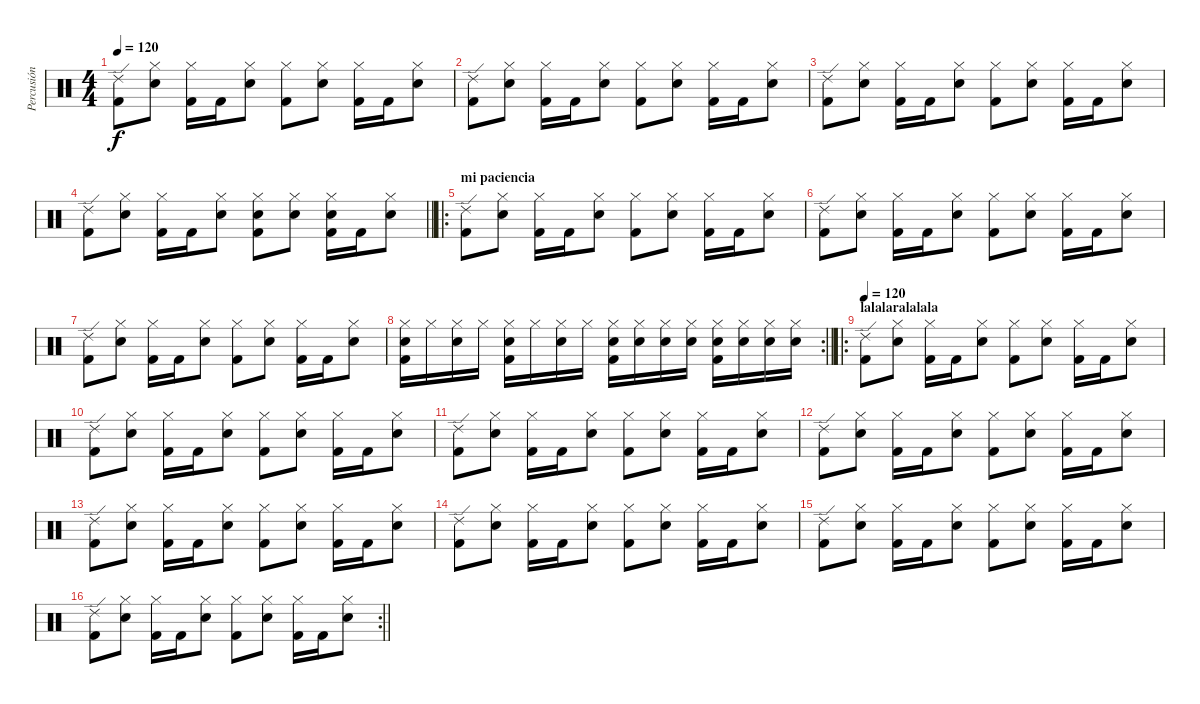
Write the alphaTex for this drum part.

\track ("Percusión" "Percusión") {instrument percussion}
\staff {score}
\articulation defaults
\ts (4 4)
\tempo 120
\clef neutral
\ks c
("Ride (edge) 2" "Kick (hit) 2").8{dy f} ("Hi-Hat (closed)" "Electric Snare (hit)").8 ("Hi-Hat (closed)" "Kick (hit) 2").16 "Kick (hit) 2".16 ("Hi-Hat (closed)" "Electric Snare (hit)").8 ("Hi-Hat (closed)" "Kick (hit) 2").8 ("Hi-Hat (closed)" "Electric Snare (hit)").8 ("Hi-Hat (closed)" "Kick (hit) 2").16 "Kick (hit) 2".16 ("Hi-Hat (closed)" "Electric Snare (hit)").8 |
("Ride (edge) 2" "Kick (hit) 2").8 ("Hi-Hat (closed)" "Electric Snare (hit)").8 ("Hi-Hat (closed)" "Kick (hit) 2").16 "Kick (hit) 2".16 ("Hi-Hat (closed)" "Electric Snare (hit)").8 ("Hi-Hat (closed)" "Kick (hit) 2").8 ("Hi-Hat (closed)" "Electric Snare (hit)").8 ("Hi-Hat (closed)" "Kick (hit) 2").16 "Kick (hit) 2".16 ("Hi-Hat (closed)" "Electric Snare (hit)").8 |
("Ride (edge) 2" "Kick (hit) 2").8 ("Hi-Hat (closed)" "Electric Snare (hit)").8 ("Hi-Hat (closed)" "Kick (hit) 2").16 "Kick (hit) 2".16 ("Hi-Hat (closed)" "Electric Snare (hit)").8 ("Hi-Hat (closed)" "Kick (hit) 2").8 ("Hi-Hat (closed)" "Electric Snare (hit)").8 ("Hi-Hat (closed)" "Kick (hit) 2").16 "Kick (hit) 2".16 ("Hi-Hat (closed)" "Electric Snare (hit)").8 |
\barLineRight lightlight
("Ride (edge) 2" "Kick (hit) 2").8 ("Hi-Hat (closed)" "Electric Snare (hit)").8 ("Hi-Hat (closed)" "Kick (hit) 2").16 "Kick (hit) 2".16 ("Hi-Hat (closed)" "Electric Snare (hit)").8 ("Hi-Hat (closed)" "Electric Snare (hit)" "Kick (hit) 2").8 ("Hi-Hat (closed)" "Electric Snare (hit)").8 ("Hi-Hat (closed)" "Electric Snare (hit)" "Kick (hit) 2").16 "Kick (hit) 2".16 ("Hi-Hat (closed)" "Electric Snare (hit)").8 |
\ro
\section ("" "mi paciencia")
("Ride (edge) 2" "Kick (hit) 2").8 ("Hi-Hat (closed)" "Electric Snare (hit)").8 ("Hi-Hat (closed)" "Kick (hit) 2").16 "Kick (hit) 2".16 ("Hi-Hat (closed)" "Electric Snare (hit)").8 ("Hi-Hat (closed)" "Kick (hit) 2").8 ("Hi-Hat (closed)" "Electric Snare (hit)").8 ("Hi-Hat (closed)" "Kick (hit) 2").16 "Kick (hit) 2".16 ("Hi-Hat (closed)" "Electric Snare (hit)").8 |
("Ride (edge) 2" "Kick (hit) 2").8 ("Hi-Hat (closed)" "Electric Snare (hit)").8 ("Hi-Hat (closed)" "Kick (hit) 2").16 "Kick (hit) 2".16 ("Hi-Hat (closed)" "Electric Snare (hit)").8 ("Hi-Hat (closed)" "Kick (hit) 2").8 ("Hi-Hat (closed)" "Electric Snare (hit)").8 ("Hi-Hat (closed)" "Kick (hit) 2").16 "Kick (hit) 2".16 ("Hi-Hat (closed)" "Electric Snare (hit)").8 |
("Ride (edge) 2" "Kick (hit) 2").8 ("Hi-Hat (closed)" "Electric Snare (hit)").8 ("Hi-Hat (closed)" "Kick (hit) 2").16 "Kick (hit) 2".16 ("Hi-Hat (closed)" "Electric Snare (hit)").8 ("Hi-Hat (closed)" "Kick (hit) 2").8 ("Hi-Hat (closed)" "Electric Snare (hit)").8 ("Hi-Hat (closed)" "Kick (hit) 2").16 "Kick (hit) 2".16 ("Hi-Hat (closed)" "Electric Snare (hit)").8 |
\rc 2
\barLineRight lightlight
("Hi-Hat (closed)" "Electric Snare (hit)" "Kick (hit) 2").16 "Hi-Hat (closed)".16 ("Hi-Hat (closed)" "Electric Snare (hit)").16 "Hi-Hat (closed)".16 ("Hi-Hat (closed)" "Electric Snare (hit)" "Kick (hit) 2").16 "Hi-Hat (closed)".16 ("Hi-Hat (closed)" "Electric Snare (hit)").16 "Hi-Hat (closed)".16 ("Hi-Hat (closed)" "Electric Snare (hit)" "Kick (hit) 2").16 ("Hi-Hat (closed)" "Electric Snare (hit)").16 ("Hi-Hat (closed)" "Electric Snare (hit)").16 ("Hi-Hat (closed)" "Electric Snare (hit)").16 ("Hi-Hat (closed)" "Electric Snare (hit)" "Kick (hit) 2").16 ("Hi-Hat (closed)" "Electric Snare (hit)").16 ("Hi-Hat (closed)" "Electric Snare (hit)").16 ("Hi-Hat (closed)" "Electric Snare (hit)").16 |
\ro
\section ("" "lalalaralalala")
\tempo 120
("Ride (edge) 2" "Kick (hit) 2").8 ("Hi-Hat (closed)" "Electric Snare (hit)").8 ("Hi-Hat (closed)" "Kick (hit) 2").16 "Kick (hit) 2".16 ("Hi-Hat (closed)" "Electric Snare (hit)").8 ("Hi-Hat (closed)" "Kick (hit) 2").8 ("Hi-Hat (closed)" "Electric Snare (hit)").8 ("Hi-Hat (closed)" "Kick (hit) 2").16 "Kick (hit) 2".16 ("Hi-Hat (closed)" "Electric Snare (hit)").8 |
("Ride (edge) 2" "Kick (hit) 2").8 ("Hi-Hat (closed)" "Electric Snare (hit)").8 ("Hi-Hat (closed)" "Kick (hit) 2").16 "Kick (hit) 2".16 ("Hi-Hat (closed)" "Electric Snare (hit)").8 ("Hi-Hat (closed)" "Kick (hit) 2").8 ("Hi-Hat (closed)" "Electric Snare (hit)").8 ("Hi-Hat (closed)" "Kick (hit) 2").16 "Kick (hit) 2".16 ("Hi-Hat (closed)" "Electric Snare (hit)").8 |
("Ride (edge) 2" "Kick (hit) 2").8 ("Hi-Hat (closed)" "Electric Snare (hit)").8 ("Hi-Hat (closed)" "Kick (hit) 2").16 "Kick (hit) 2".16 ("Hi-Hat (closed)" "Electric Snare (hit)").8 ("Hi-Hat (closed)" "Kick (hit) 2").8 ("Hi-Hat (closed)" "Electric Snare (hit)").8 ("Hi-Hat (closed)" "Kick (hit) 2").16 "Kick (hit) 2".16 ("Hi-Hat (closed)" "Electric Snare (hit)").8 |
("Ride (edge) 2" "Kick (hit) 2").8 ("Hi-Hat (closed)" "Electric Snare (hit)").8 ("Hi-Hat (closed)" "Kick (hit) 2").16 "Kick (hit) 2".16 ("Hi-Hat (closed)" "Electric Snare (hit)").8 ("Hi-Hat (closed)" "Kick (hit) 2").8 ("Hi-Hat (closed)" "Electric Snare (hit)").8 ("Hi-Hat (closed)" "Kick (hit) 2").16 "Kick (hit) 2".16 ("Hi-Hat (closed)" "Electric Snare (hit)").8 |
("Ride (edge) 2" "Kick (hit) 2").8 ("Hi-Hat (closed)" "Electric Snare (hit)").8 ("Hi-Hat (closed)" "Kick (hit) 2").16 "Kick (hit) 2".16 ("Hi-Hat (closed)" "Electric Snare (hit)").8 ("Hi-Hat (closed)" "Kick (hit) 2").8 ("Hi-Hat (closed)" "Electric Snare (hit)").8 ("Hi-Hat (closed)" "Kick (hit) 2").16 "Kick (hit) 2".16 ("Hi-Hat (closed)" "Electric Snare (hit)").8 |
("Ride (edge) 2" "Kick (hit) 2").8 ("Hi-Hat (closed)" "Electric Snare (hit)").8 ("Hi-Hat (closed)" "Kick (hit) 2").16 "Kick (hit) 2".16 ("Hi-Hat (closed)" "Electric Snare (hit)").8 ("Hi-Hat (closed)" "Kick (hit) 2").8 ("Hi-Hat (closed)" "Electric Snare (hit)").8 ("Hi-Hat (closed)" "Kick (hit) 2").16 "Kick (hit) 2".16 ("Hi-Hat (closed)" "Electric Snare (hit)").8 |
("Ride (edge) 2" "Kick (hit) 2").8 ("Hi-Hat (closed)" "Electric Snare (hit)").8 ("Hi-Hat (closed)" "Kick (hit) 2").16 "Kick (hit) 2".16 ("Hi-Hat (closed)" "Electric Snare (hit)").8 ("Hi-Hat (closed)" "Kick (hit) 2").8 ("Hi-Hat (closed)" "Electric Snare (hit)").8 ("Hi-Hat (closed)" "Kick (hit) 2").16 "Kick (hit) 2".16 ("Hi-Hat (closed)" "Electric Snare (hit)").8 |
\rc 2
\barLineRight lightlight
("Ride (edge) 2" "Kick (hit) 2").8 ("Hi-Hat (closed)" "Electric Snare (hit)").8 ("Hi-Hat (closed)" "Kick (hit) 2").16 "Kick (hit) 2".16 ("Hi-Hat (closed)" "Electric Snare (hit)").8 ("Hi-Hat (closed)" "Kick (hit) 2").8 ("Hi-Hat (closed)" "Electric Snare (hit)").8 ("Hi-Hat (closed)" "Kick (hit) 2").16 "Kick (hit) 2".16 ("Hi-Hat (closed)" "Electric Snare (hit)").8
